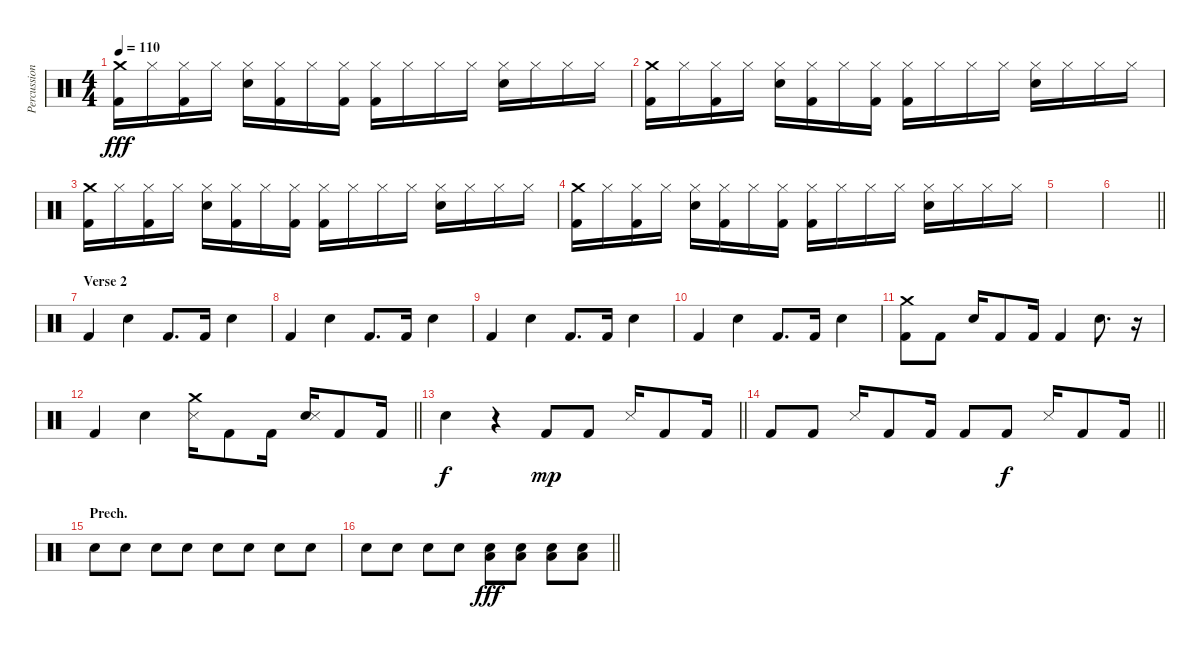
\track ("Percussion" "Percussion") {instrument percussion}
\staff {score}
\articulation defaults
\ts (4 4)
\tempo 110
\clef neutral
\ks c
("Crash medium (hit)" "Kick (hit) 2").16{dy fff} "Hi-Hat (closed)".16 ("Hi-Hat (closed)" "Kick (hit) 2").16 "Hi-Hat (closed)".16 ("Hi-Hat (closed)" "Snare (hit) 2").16 ("Hi-Hat (closed)" "Kick (hit) 2").16 "Hi-Hat (closed)".16 ("Hi-Hat (closed)" "Kick (hit) 2").16 ("Hi-Hat (closed)" "Kick (hit) 2").16 "Hi-Hat (closed)".16 "Hi-Hat (closed)".16 "Hi-Hat (closed)".16 ("Hi-Hat (closed)" "Snare (hit) 2").16 "Hi-Hat (closed)".16 "Hi-Hat (closed)".16 "Hi-Hat (closed)".16 |
("Crash medium (hit)" "Kick (hit) 2").16 "Hi-Hat (closed)".16 ("Hi-Hat (closed)" "Kick (hit) 2").16 "Hi-Hat (closed)".16 ("Hi-Hat (closed)" "Snare (hit) 2").16 ("Hi-Hat (closed)" "Kick (hit) 2").16 "Hi-Hat (closed)".16 ("Hi-Hat (closed)" "Kick (hit) 2").16 ("Hi-Hat (closed)" "Kick (hit) 2").16 "Hi-Hat (closed)".16 "Hi-Hat (closed)".16 "Hi-Hat (closed)".16 ("Hi-Hat (closed)" "Snare (hit) 2").16 "Hi-Hat (closed)".16 "Hi-Hat (closed)".16 "Hi-Hat (closed)".16 |
("Crash medium (hit)" "Kick (hit) 2").16 "Hi-Hat (closed)".16 ("Hi-Hat (closed)" "Kick (hit) 2").16 "Hi-Hat (closed)".16 ("Hi-Hat (closed)" "Snare (hit) 2").16 ("Hi-Hat (closed)" "Kick (hit) 2").16 "Hi-Hat (closed)".16 ("Hi-Hat (closed)" "Kick (hit) 2").16 ("Hi-Hat (closed)" "Kick (hit) 2").16 "Hi-Hat (closed)".16 "Hi-Hat (closed)".16 "Hi-Hat (closed)".16 ("Hi-Hat (closed)" "Snare (hit) 2").16 "Hi-Hat (closed)".16 "Hi-Hat (closed)".16 "Hi-Hat (closed)".16 |
("Crash medium (hit)" "Kick (hit) 2").16 "Hi-Hat (closed)".16 ("Hi-Hat (closed)" "Kick (hit) 2").16 "Hi-Hat (closed)".16 ("Hi-Hat (closed)" "Snare (hit) 2").16 ("Hi-Hat (closed)" "Kick (hit) 2").16 "Hi-Hat (closed)".16 ("Hi-Hat (closed)" "Kick (hit) 2").16 ("Hi-Hat (closed)" "Kick (hit) 2").16 "Hi-Hat (closed)".16 "Hi-Hat (closed)".16 "Hi-Hat (closed)".16 ("Hi-Hat (closed)" "Snare (hit) 2").16 "Hi-Hat (closed)".16 "Hi-Hat (closed)".16 "Hi-Hat (closed)".16 |
|
\barLineRight lightlight
|
\section ("" "Verse 2")
"Kick (hit) 2".4 "Snare (hit) 2".4 "Kick (hit) 2".8{d} "Kick (hit) 2".16 "Snare (hit) 2".4 |
"Kick (hit) 2".4 "Snare (hit) 2".4 "Kick (hit) 2".8{d} "Kick (hit) 2".16 "Snare (hit) 2".4 |
"Kick (hit) 2".4 "Snare (hit) 2".4 "Kick (hit) 2".8{d} "Kick (hit) 2".16 "Snare (hit) 2".4 |
"Kick (hit) 2".4 "Snare (hit) 2".4 "Kick (hit) 2".8{d} "Kick (hit) 2".16 "Snare (hit) 2".4 |
("Crash medium (hit)" "Kick (hit) 2").8 "Kick (hit) 2".8 "Snare (hit) 2".16 "Kick (hit) 2".8 "Kick (hit) 2".16 "Kick (hit) 2".4 "Snare (hit) 2".8{d} r.16 |
\barLineRight lightlight "Kick (hit) 2".4 "Snare (hit) 2".4
("Crash medium (hit)" "Snare (side stick) 3").16 "Kick (hit) 2".8 "Kick (hit) 2".16 ("Snare (hit) 2" "Snare (side stick) 3").16 "Kick (hit) 2".8 "Kick (hit) 2".16 |
\barLineRight lightlight "Snare (hit) 2".4{dy f}
r.4 "Kick (hit) 2".8{dy mp} "Kick (hit) 2".8 "Snare (side stick) 3".16 "Kick (hit) 2".8 "Kick (hit) 2".16 |
\barLineRight lightlight "Kick (hit) 2".8 "Kick (hit) 2".8 "Snare (side stick) 3".16 "Kick (hit) 2".8 "Kick (hit) 2".16 "Kick (hit) 2".8 "Kick (hit) 2".8{dy f} "Snare (side stick) 3".16 "Kick (hit) 2".8 "Kick (hit) 2".16
|
\section ("" "Prech.")
"Snare (hit) 2".8 "Snare (hit) 2".8 "Snare (hit) 2".8 "Snare (hit) 2".8 "Snare (hit) 2".8 "Snare (hit) 2".8 "Snare (hit) 2".8 "Snare (hit) 2".8 |
\barLineRight lightlight "Snare (hit) 2".8 "Snare (hit) 2".8 "Snare (hit) 2".8 "Snare (hit) 2".8
("Snare (hit) 2" "Low Floor Tom (hit)").8{dy fff} ("Snare (hit) 2" "Low Floor Tom (hit)").8 ("Snare (hit) 2" "Low Floor Tom (hit)").8 ("Snare (hit) 2" "Low Floor Tom (hit)").8
